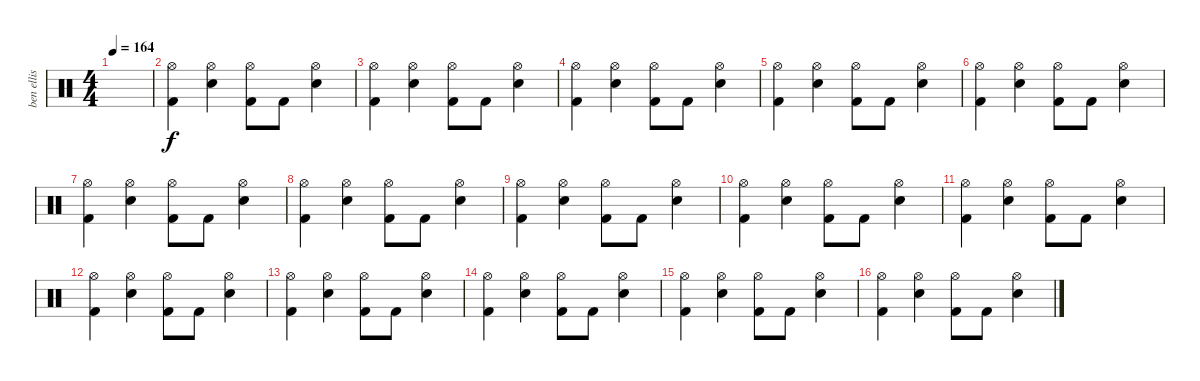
\track ("ben ellis" "ben ellis") {instrument percussion}
\staff {score}
\articulation defaults
\ts (4 4)
\tempo 164
\clef neutral
\ks c
|
("Hi-Hat (open)" "Kick (hit) 2").4 ("Hi-Hat (open)" "Electric Snare (hit)").4 ("Hi-Hat (open)" "Kick (hit) 2").8 "Kick (hit) 2".8 ("Hi-Hat (open)" "Electric Snare (hit)").4 |
("Hi-Hat (open)" "Kick (hit) 2").4 ("Hi-Hat (open)" "Electric Snare (hit)").4 ("Hi-Hat (open)" "Kick (hit) 2").8 "Kick (hit) 2".8 ("Hi-Hat (open)" "Electric Snare (hit)").4 |
("Hi-Hat (open)" "Kick (hit) 2").4 ("Hi-Hat (open)" "Electric Snare (hit)").4 ("Hi-Hat (open)" "Kick (hit) 2").8 "Kick (hit) 2".8 ("Hi-Hat (open)" "Electric Snare (hit)").4 |
("Hi-Hat (open)" "Kick (hit) 2").4 ("Hi-Hat (open)" "Electric Snare (hit)").4 ("Hi-Hat (open)" "Kick (hit) 2").8 "Kick (hit) 2".8 ("Hi-Hat (open)" "Electric Snare (hit)").4 |
("Hi-Hat (open)" "Kick (hit) 2").4 ("Hi-Hat (open)" "Electric Snare (hit)").4 ("Hi-Hat (open)" "Kick (hit) 2").8 "Kick (hit) 2".8 ("Hi-Hat (open)" "Electric Snare (hit)").4 |
("Hi-Hat (open)" "Kick (hit) 2").4 ("Hi-Hat (open)" "Electric Snare (hit)").4 ("Hi-Hat (open)" "Kick (hit) 2").8 "Kick (hit) 2".8 ("Hi-Hat (open)" "Electric Snare (hit)").4 |
("Hi-Hat (open)" "Kick (hit) 2").4 ("Hi-Hat (open)" "Electric Snare (hit)").4 ("Hi-Hat (open)" "Kick (hit) 2").8 "Kick (hit) 2".8 ("Hi-Hat (open)" "Electric Snare (hit)").4 |
("Hi-Hat (open)" "Kick (hit) 2").4 ("Hi-Hat (open)" "Electric Snare (hit)").4 ("Hi-Hat (open)" "Kick (hit) 2").8 "Kick (hit) 2".8 ("Hi-Hat (open)" "Electric Snare (hit)").4 |
("Hi-Hat (open)" "Kick (hit) 2").4 ("Hi-Hat (open)" "Electric Snare (hit)").4 ("Hi-Hat (open)" "Kick (hit) 2").8 "Kick (hit) 2".8 ("Hi-Hat (open)" "Electric Snare (hit)").4 |
("Hi-Hat (open)" "Kick (hit) 2").4 ("Hi-Hat (open)" "Electric Snare (hit)").4 ("Hi-Hat (open)" "Kick (hit) 2").8 "Kick (hit) 2".8 ("Hi-Hat (open)" "Electric Snare (hit)").4 |
("Hi-Hat (open)" "Kick (hit) 2").4 ("Hi-Hat (open)" "Electric Snare (hit)").4 ("Hi-Hat (open)" "Kick (hit) 2").8 "Kick (hit) 2".8 ("Hi-Hat (open)" "Electric Snare (hit)").4 |
("Hi-Hat (open)" "Kick (hit) 2").4 ("Hi-Hat (open)" "Electric Snare (hit)").4 ("Hi-Hat (open)" "Kick (hit) 2").8 "Kick (hit) 2".8 ("Hi-Hat (open)" "Electric Snare (hit)").4 |
("Hi-Hat (open)" "Kick (hit) 2").4 ("Hi-Hat (open)" "Electric Snare (hit)").4 ("Hi-Hat (open)" "Kick (hit) 2").8 "Kick (hit) 2".8 ("Hi-Hat (open)" "Electric Snare (hit)").4 |
("Hi-Hat (open)" "Kick (hit) 2").4 ("Hi-Hat (open)" "Electric Snare (hit)").4 ("Hi-Hat (open)" "Kick (hit) 2").8 "Kick (hit) 2".8 ("Hi-Hat (open)" "Electric Snare (hit)").4 |
("Hi-Hat (open)" "Kick (hit) 2").4 ("Hi-Hat (open)" "Electric Snare (hit)").4 ("Hi-Hat (open)" "Kick (hit) 2").8 "Kick (hit) 2".8 ("Hi-Hat (open)" "Electric Snare (hit)").4
